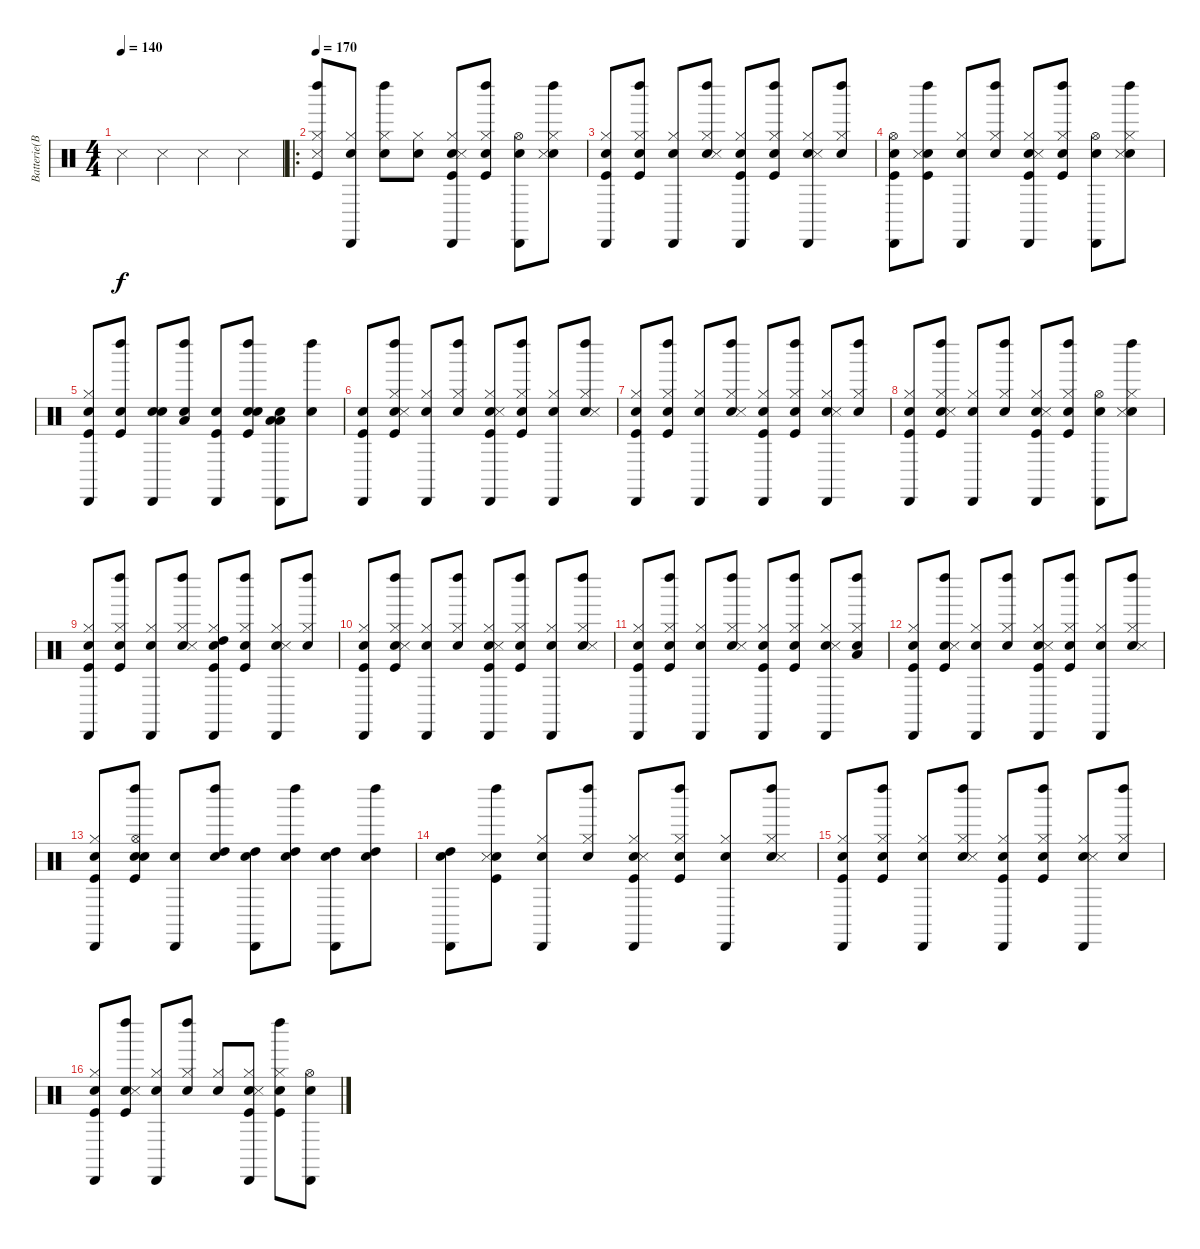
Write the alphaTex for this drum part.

\track ("Batterie(BB)" "Batterie(B") {instrument percussion}
\staff {score}
\articulation defaults
\ts (4 4)
\tempo 140
\clef neutral
\ks c "Snare (side stick) 3".4{dy f} "Snare (side stick) 3".4 "Snare (side stick) 3".4 "Snare (side stick) 3".4
|
\ro
\tempo 170
("Kick (hit)" "Hi-Hat (closed)" "Snare (side stick) 3" "Left Maraca (hit)").8 ("Snare (hit)" "Hi-Hat (closed)" "Cabasa (hit)").8 ("Snare (hit)" "Hi-Hat (closed)" "Left Maraca (hit)").8 ("Snare (hit)" "Hi-Hat (closed)").8 ("Snare (hit)" "Kick (hit)" "Hi-Hat (closed)" "Snare (side stick) 3" "Cabasa (hit)").8 ("Snare (hit)" "Kick (hit)" "Hi-Hat (closed)" "Left Maraca (hit)").8 ("Snare (hit)" "Hi-Hat (open)" "Cabasa (hit)").8 ("Snare (hit)" "Hi-Hat (closed)" "Snare (side stick) 3" "Left Maraca (hit)").8 |
("Snare (hit)" "Kick (hit)" "Hi-Hat (closed)" "Cabasa (hit)").8 ("Snare (hit)" "Kick (hit)" "Hi-Hat (closed)" "Left Maraca (hit)").8 ("Snare (hit)" "Hi-Hat (closed)" "Cabasa (hit)").8 ("Snare (hit)" "Hi-Hat (closed)" "Snare (side stick) 3" "Left Maraca (hit)").8 ("Snare (hit)" "Kick (hit)" "Hi-Hat (closed)" "Cabasa (hit)").8 ("Snare (hit)" "Kick (hit)" "Hi-Hat (closed)" "Left Maraca (hit)").8 ("Snare (hit)" "Hi-Hat (closed)" "Snare (side stick) 3" "Cabasa (hit)").8 ("Snare (hit)" "Hi-Hat (closed)" "Left Maraca (hit)").8 |
("Snare (hit)" "Kick (hit)" "Hi-Hat (open)" "Cabasa (hit)").8 ("Snare (hit)" "Kick (hit)" "Snare (side stick) 3" "Left Maraca (hit)").8 ("Snare (hit)" "Hi-Hat (closed)" "Cabasa (hit)").8 ("Snare (hit)" "Hi-Hat (closed)" "Left Maraca (hit)").8 ("Snare (hit)" "Kick (hit)" "Hi-Hat (closed)" "Snare (side stick) 3" "Cabasa (hit)").8 ("Snare (hit)" "Kick (hit)" "Hi-Hat (closed)" "Left Maraca (hit)").8 ("Snare (hit)" "Hi-Hat (open)" "Cabasa (hit)").8 ("Snare (hit)" "Hi-Hat (closed)" "Snare (side stick) 3" "Left Maraca (hit)").8 |
("Snare (hit)" "Kick (hit)" "Hi-Hat (closed)" "Cabasa (hit)").8 ("Snare (hit)" "Kick (hit)" "Left Maraca (hit)").8 ("Snare (hit)" "Snare (hit) 2" "Cabasa (hit)").8 ("Snare (hit)" "Low Tom (hit)" "Left Maraca (hit)").8 ("Snare (hit)" "Kick (hit)" "Cabasa (hit)").8 ("Snare (hit)" "Kick (hit)" "Snare (hit) 2" "Left Maraca (hit)").8 ("Snare (hit)" "Low Floor Tom (hit)" "Low Tom (hit)" "Cabasa (hit)").8 ("Snare (hit)" "Left Maraca (hit)").8 |
("Snare (hit)" "Kick (hit)" "Cabasa (hit)").8 ("Snare (hit)" "Kick (hit)" "Hi-Hat (closed)" "Snare (side stick) 3" "Left Maraca (hit)").8 ("Snare (hit)" "Hi-Hat (closed)" "Cabasa (hit)").8 ("Snare (hit)" "Hi-Hat (closed)" "Left Maraca (hit)").8 ("Snare (hit)" "Kick (hit)" "Hi-Hat (closed)" "Snare (side stick) 3" "Cabasa (hit)").8 ("Snare (hit)" "Kick (hit)" "Hi-Hat (closed)" "Left Maraca (hit)").8 ("Snare (hit)" "Hi-Hat (closed)" "Cabasa (hit)").8 ("Snare (hit)" "Hi-Hat (closed)" "Snare (side stick) 3" "Left Maraca (hit)").8 |
("Snare (hit)" "Kick (hit)" "Hi-Hat (closed)" "Cabasa (hit)").8 ("Snare (hit)" "Kick (hit)" "Hi-Hat (closed)" "Left Maraca (hit)").8 ("Snare (hit)" "Hi-Hat (closed)" "Cabasa (hit)").8 ("Snare (hit)" "Hi-Hat (closed)" "Snare (side stick) 3" "Left Maraca (hit)").8 ("Snare (hit)" "Kick (hit)" "Hi-Hat (closed)" "Cabasa (hit)").8 ("Snare (hit)" "Kick (hit)" "Hi-Hat (closed)" "Left Maraca (hit)").8 ("Snare (hit)" "Hi-Hat (closed)" "Snare (side stick) 3" "Cabasa (hit)").8 ("Snare (hit)" "Hi-Hat (closed)" "Left Maraca (hit)").8 |
("Snare (hit)" "Kick (hit)" "Hi-Hat (closed)" "Cabasa (hit)").8 ("Snare (hit)" "Kick (hit)" "Hi-Hat (closed)" "Snare (side stick) 3" "Left Maraca (hit)").8 ("Snare (hit)" "Hi-Hat (closed)" "Cabasa (hit)").8 ("Snare (hit)" "Hi-Hat (closed)" "Left Maraca (hit)").8 ("Snare (hit)" "Kick (hit)" "Hi-Hat (closed)" "Snare (side stick) 3" "Cabasa (hit)").8 ("Snare (hit)" "Kick (hit)" "Hi-Hat (closed)" "Left Maraca (hit)").8 ("Snare (hit)" "Hi-Hat (open)" "Cabasa (hit)").8 ("Snare (hit)" "Hi-Hat (closed)" "Snare (side stick) 3" "Left Maraca (hit)").8 |
("Snare (hit)" "Kick (hit)" "Hi-Hat (closed)" "Cabasa (hit)").8 ("Snare (hit)" "Kick (hit)" "Hi-Hat (closed)" "Left Maraca (hit)").8 ("Snare (hit)" "Hi-Hat (closed)" "Cabasa (hit)").8 ("Snare (hit)" "Hi-Hat (closed)" "Snare (side stick) 3" "Left Maraca (hit)").8 ("Snare (hit)" "Kick (hit)" "Hi-Hat (closed)" "High Tom (hit)" "Cabasa (hit)").8 ("Snare (hit)" "Kick (hit)" "Hi-Hat (closed)" "Left Maraca (hit)").8 ("Snare (hit)" "Hi-Hat (closed)" "Snare (side stick) 3" "Cabasa (hit)").8 ("Snare (hit)" "Hi-Hat (closed)" "Left Maraca (hit)").8 |
("Snare (hit)" "Kick (hit)" "Hi-Hat (closed)" "Cabasa (hit)").8 ("Snare (hit)" "Kick (hit)" "Hi-Hat (closed)" "Snare (side stick) 3" "Left Maraca (hit)").8 ("Snare (hit)" "Hi-Hat (closed)" "Cabasa (hit)").8 ("Snare (hit)" "Hi-Hat (closed)" "Left Maraca (hit)").8 ("Snare (hit)" "Kick (hit)" "Hi-Hat (closed)" "Snare (side stick) 3" "Cabasa (hit)").8 ("Snare (hit)" "Kick (hit)" "Hi-Hat (closed)" "Left Maraca (hit)").8 ("Snare (hit)" "Hi-Hat (closed)" "Cabasa (hit)").8 ("Snare (hit)" "Hi-Hat (closed)" "Snare (side stick) 3" "Left Maraca (hit)").8 |
("Snare (hit)" "Kick (hit)" "Hi-Hat (closed)" "Cabasa (hit)").8 ("Snare (hit)" "Kick (hit)" "Hi-Hat (closed)" "Left Maraca (hit)").8 ("Snare (hit)" "Hi-Hat (closed)" "Cabasa (hit)").8 ("Snare (hit)" "Hi-Hat (closed)" "Snare (side stick) 3" "Left Maraca (hit)").8 ("Snare (hit)" "Kick (hit)" "Hi-Hat (closed)" "Cabasa (hit)").8 ("Snare (hit)" "Kick (hit)" "Hi-Hat (closed)" "Left Maraca (hit)").8 ("Snare (hit)" "Hi-Hat (closed)" "Snare (side stick) 3" "Cabasa (hit)").8 ("Snare (hit)" "Hi-Hat (closed)" "Low Tom (hit)" "Left Maraca (hit)").8 |
("Snare (hit)" "Kick (hit)" "Hi-Hat (closed)" "Cabasa (hit)").8 ("Snare (hit)" "Kick (hit)" "Snare (side stick) 3" "Left Maraca (hit)").8 ("Snare (hit)" "Hi-Hat (closed)" "Cabasa (hit)").8 ("Snare (hit)" "Hi-Hat (closed)" "Left Maraca (hit)").8 ("Snare (hit)" "Kick (hit)" "Hi-Hat (closed)" "Snare (side stick) 3" "Cabasa (hit)").8 ("Snare (hit)" "Kick (hit)" "Hi-Hat (closed)" "Left Maraca (hit)").8 ("Snare (hit)" "Hi-Hat (closed)" "Cabasa (hit)").8 ("Snare (hit)" "Hi-Hat (closed)" "Snare (side stick) 3" "Left Maraca (hit)").8 |
("Snare (hit)" "Kick (hit)" "Hi-Hat (closed)" "Cabasa (hit)").8 ("Snare (hit)" "Kick (hit)" "Snare (hit) 2" "Hi-Hat (open)" "Left Maraca (hit)").8 ("Snare (hit)" "Cabasa (hit)").8 ("Snare (hit)" "High Tom (hit)" "Left Maraca (hit)").8 ("Snare (hit)" "High Tom (hit)" "Cabasa (hit)").8 ("Snare (hit)" "High Tom (hit)" "Left Maraca (hit)").8 ("Snare (hit)" "High Tom (hit)" "Cabasa (hit)").8 ("Snare (hit)" "High Tom (hit)" "Left Maraca (hit)").8 |
("Snare (hit)" "High Tom (hit)" "Cabasa (hit)").8 ("Snare (hit)" "Kick (hit)" "Snare (side stick) 3" "Left Maraca (hit)").8 ("Snare (hit)" "Hi-Hat (closed)" "Cabasa (hit)").8 ("Snare (hit)" "Hi-Hat (closed)" "Left Maraca (hit)").8 ("Snare (hit)" "Kick (hit)" "Hi-Hat (closed)" "Snare (side stick) 3" "Cabasa (hit)").8 ("Snare (hit)" "Kick (hit)" "Hi-Hat (closed)" "Left Maraca (hit)").8 ("Snare (hit)" "Hi-Hat (closed)" "Cabasa (hit)").8 ("Snare (hit)" "Hi-Hat (closed)" "Snare (side stick) 3" "Left Maraca (hit)").8 |
("Snare (hit)" "Kick (hit)" "Hi-Hat (closed)" "Cabasa (hit)").8 ("Snare (hit)" "Kick (hit)" "Hi-Hat (closed)" "Left Maraca (hit)").8 ("Snare (hit)" "Hi-Hat (closed)" "Cabasa (hit)").8 ("Snare (hit)" "Hi-Hat (closed)" "Snare (side stick) 3" "Left Maraca (hit)").8 ("Snare (hit)" "Kick (hit)" "Hi-Hat (closed)" "Cabasa (hit)").8 ("Snare (hit)" "Kick (hit)" "Hi-Hat (closed)" "Left Maraca (hit)").8 ("Snare (hit)" "Hi-Hat (closed)" "Snare (side stick) 3" "Cabasa (hit)").8 ("Snare (hit)" "Hi-Hat (closed)" "Left Maraca (hit)").8 |
("Snare (hit)" "Kick (hit)" "Hi-Hat (closed)" "Cabasa (hit)").8 ("Snare (hit)" "Kick (hit)" "Snare (side stick) 3" "Left Maraca (hit)").8 ("Snare (hit)" "Hi-Hat (closed)" "Cabasa (hit)").8 ("Snare (hit)" "Hi-Hat (closed)" "Left Maraca (hit)").8 ("Snare (hit)" "Hi-Hat (closed)").8 ("Snare (hit)" "Kick (hit)" "Hi-Hat (closed)" "Snare (side stick) 3" "Cabasa (hit)").8 ("Snare (hit)" "Kick (hit)" "Hi-Hat (closed)" "Left Maraca (hit)").8 ("Snare (hit)" "Hi-Hat (open)" "Cabasa (hit)").8
